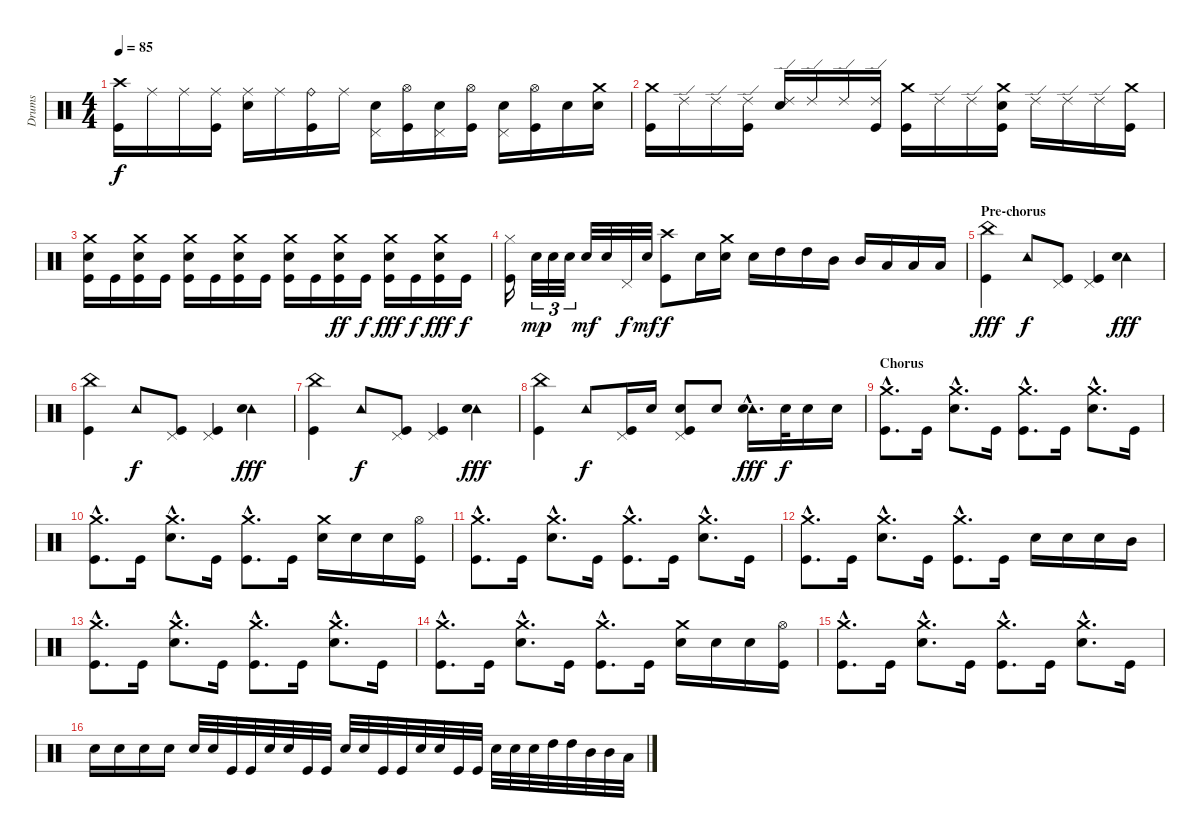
\track ("Drums" "Drums") {instrument percussion}
\staff {score}
\articulation defaults
\ts (4 4)
\tempo 85
\clef neutral
\ks c
("Crash high (hit)" "Kick (hit)").16{dy f} "Ride (middle)".16 "Ride (middle)".16 ("Ride (middle)" "Kick (hit)").16 ("Ride (middle)" "Electric Snare (hit)").16 "Ride (middle)".16 ("Ride (bell)" "Kick (hit)").16 "Ride (middle)".16 ("Pedal Hi-Hat (hit)" "Electric Snare (hit)").16 ("Hi-Hat (open)" "Kick (hit)").16 ("Pedal Hi-Hat (hit)" "Electric Snare (hit)").16 ("Hi-Hat (open)" "Kick (hit)").16 ("Pedal Hi-Hat (hit)" "Electric Snare (hit)").16 ("Hi-Hat (open)" "Kick (hit)").16 "Electric Snare (hit)".16 ("Crash medium (hit)" "Electric Snare (hit)").16 |
("Crash medium (hit)" "Kick (hit)").16 "Ride (edge) 2".16 "Ride (edge) 2".16 ("Ride (edge) 2" "Kick (hit)").16 ("Ride (edge) 2" "Electric Snare (hit)").16 "Ride (edge) 2".16 "Ride (edge) 2".16 ("Ride (edge) 2" "Kick (hit)").16 ("Crash medium (hit)" "Kick (hit)").16 "Ride (edge) 2".16 "Ride (edge) 2".16 ("Crash medium (hit)" "Electric Snare (hit)" "Kick (hit)").16 "Ride (edge) 2".16 "Ride (edge) 2".16 "Ride (edge) 2".16 ("Crash medium (hit)" "Kick (hit)").16 |
("Crash medium (hit)" "Electric Snare (hit)" "Kick (hit)").16 "Kick (hit)".16 ("Crash medium (hit)" "Electric Snare (hit)" "Kick (hit)").16 "Kick (hit)".16 ("Crash medium (hit)" "Electric Snare (hit)" "Kick (hit)").16 "Kick (hit)".16 ("Crash medium (hit)" "Electric Snare (hit)" "Kick (hit)").16 "Kick (hit)".16 ("Crash medium (hit)" "Electric Snare (hit)" "Kick (hit)").16 "Kick (hit)".16 ("Crash medium (hit)" "Electric Snare (hit)" "Kick (hit)").16{dy ff} "Kick (hit)".16{dy f} ("Crash medium (hit)" "Electric Snare (hit)" "Kick (hit)").16{dy fff} "Kick (hit)".16{dy f} ("Crash medium (hit)" "Electric Snare (hit)" "Kick (hit)").16{dy fff} "Kick (hit)".16{dy f} |
("Hi-Hat (closed)" "Kick (hit)").16 "Electric Snare (hit)".32{tu (3 2) dy mp} "Electric Snare (hit)".32{tu (3 2)} "Electric Snare (hit)".32{tu (3 2)} "Electric Snare (hit)".32{dy mf} "Electric Snare (hit)".32 "Pedal Hi-Hat (hit)".32{dy f} "Electric Snare (hit)".32{dy mf} ("Crash high (hit)" "Kick (hit)").8{dy f} "Electric Snare (hit)".16 ("Crash medium (hit)" "Electric Snare (hit)").16 "Electric Snare (hit)".16 "High Tom (hit)".16 "High Tom (hit)".16 "Mid Tom (hit)".16 "Mid Tom (hit)".16 "Low Tom (hit)".16 "Low Tom (hit)".16 "Low Floor Tom (hit)".16 |
\section ("" "Pre-chorus")
("China (hit)" "Kick (hit)").4{dy fff} "Tambourine (hit)".8{dy f} ("Pedal Hi-Hat (hit)" "Kick (hit)").8 ("Pedal Hi-Hat (hit)" "Kick (hit)").4 ("Tambourine (hit)" "Electric Snare (hit)").4{dy fff} |
("China (hit)" "Kick (hit)").4 "Tambourine (hit)".8{dy f} ("Pedal Hi-Hat (hit)" "Kick (hit)").8 ("Pedal Hi-Hat (hit)" "Kick (hit)").4 ("Tambourine (hit)" "Electric Snare (hit)").4{dy fff} |
("China (hit)" "Kick (hit)").4 "Tambourine (hit)".8{dy f} ("Pedal Hi-Hat (hit)" "Kick (hit)").8 ("Pedal Hi-Hat (hit)" "Kick (hit)").4 ("Tambourine (hit)" "Electric Snare (hit)").4{dy fff} |
("China (hit)" "Kick (hit)").4 "Tambourine (hit)".8{dy f} ("Pedal Hi-Hat (hit)" "Kick (hit)").16 "Electric Snare (hit)".16 ("Electric Snare (hit)" "Pedal Hi-Hat (hit)" "Kick (hit)").8 "Electric Snare (hit)".8 ("Tambourine (hit)"{hac} "Electric Snare (hit)"{hac}).16{d dy fff} "Electric Snare (hit)".32{dy f} "Electric Snare (hit)".16 "Electric Snare (hit)".16 |
\section ("" "Chorus")
("Crash medium (hit)"{hac} "Kick (hit)"{hac}).8{d} "Kick (hit)".16 ("Crash medium (hit)"{hac} "Electric Snare (hit)"{hac}).8{d} "Kick (hit)".16 ("Crash medium (hit)"{hac} "Kick (hit)"{hac}).8{d} "Kick (hit)".16 ("Crash medium (hit)"{hac} "Electric Snare (hit)"{hac}).8{d} "Kick (hit)".16 |
("Crash medium (hit)"{hac} "Kick (hit)"{hac}).8{d} "Kick (hit)".16 ("Crash medium (hit)"{hac} "Electric Snare (hit)"{hac}).8{d} "Kick (hit)".16 ("Crash medium (hit)"{hac} "Kick (hit)"{hac}).8{d} "Kick (hit)".16 ("Crash medium (hit)" "Electric Snare (hit)").16 "Electric Snare (hit)".16 "Electric Snare (hit)".16 ("Hi-Hat (open)" "Kick (hit)").16 |
("Crash medium (hit)"{hac} "Kick (hit)"{hac}).8{d} "Kick (hit)".16 ("Crash medium (hit)"{hac} "Electric Snare (hit)"{hac}).8{d} "Kick (hit)".16 ("Crash medium (hit)"{hac} "Kick (hit)"{hac}).8{d} "Kick (hit)".16 ("Crash medium (hit)"{hac} "Electric Snare (hit)"{hac}).8{d} "Kick (hit)".16 |
("Crash medium (hit)"{hac} "Kick (hit)"{hac}).8{d} "Kick (hit)".16 ("Crash medium (hit)"{hac} "Electric Snare (hit)"{hac}).8{d} "Kick (hit)".16 ("Crash medium (hit)"{hac} "Kick (hit)"{hac}).8{d} "Kick (hit)".16 "Electric Snare (hit)".16 "Electric Snare (hit)".16 "Electric Snare (hit)".16 "Mid Tom (hit)".16 |
("Crash medium (hit)"{hac} "Kick (hit)"{hac}).8{d} "Kick (hit)".16 ("Crash medium (hit)"{hac} "Electric Snare (hit)"{hac}).8{d} "Kick (hit)".16 ("Crash medium (hit)"{hac} "Kick (hit)"{hac}).8{d} "Kick (hit)".16 ("Crash medium (hit)"{hac} "Electric Snare (hit)"{hac}).8{d} "Kick (hit)".16 |
("Crash medium (hit)"{hac} "Kick (hit)"{hac}).8{d} "Kick (hit)".16 ("Crash medium (hit)"{hac} "Electric Snare (hit)"{hac}).8{d} "Kick (hit)".16 ("Crash medium (hit)"{hac} "Kick (hit)"{hac}).8{d} "Kick (hit)".16 ("Crash medium (hit)" "Electric Snare (hit)").16 "Electric Snare (hit)".16 "Electric Snare (hit)".16 ("Hi-Hat (open)" "Kick (hit)").16 |
("Crash medium (hit)"{hac} "Kick (hit)"{hac}).8{d} "Kick (hit)".16 ("Crash medium (hit)"{hac} "Electric Snare (hit)"{hac}).8{d} "Kick (hit)".16 ("Crash medium (hit)"{hac} "Kick (hit)"{hac}).8{d} "Kick (hit)".16 ("Crash medium (hit)"{hac} "Electric Snare (hit)"{hac}).8{d} "Kick (hit)".16 |
"Electric Snare (hit)".16 "Electric Snare (hit)".16 "Electric Snare (hit)".16 "Electric Snare (hit)".16 "Electric Snare (hit)".32 "Electric Snare (hit)".32 "Kick (hit)".32 "Kick (hit)".32 "Electric Snare (hit)".32 "Electric Snare (hit)".32 "Kick (hit)".32 "Kick (hit)".32 "Electric Snare (hit)".32 "Electric Snare (hit)".32 "Kick (hit)".32 "Kick (hit)".32 "Electric Snare (hit)".32 "Electric Snare (hit)".32 "Kick (hit)".32 "Kick (hit)".32 "Electric Snare (hit)".32 "Electric Snare (hit)".32 "Electric Snare (hit)".32 "High Tom (hit)".32 "High Tom (hit)".32 "Mid Tom (hit)".32 "Mid Tom (hit)".32 "Low Tom (hit)".32
